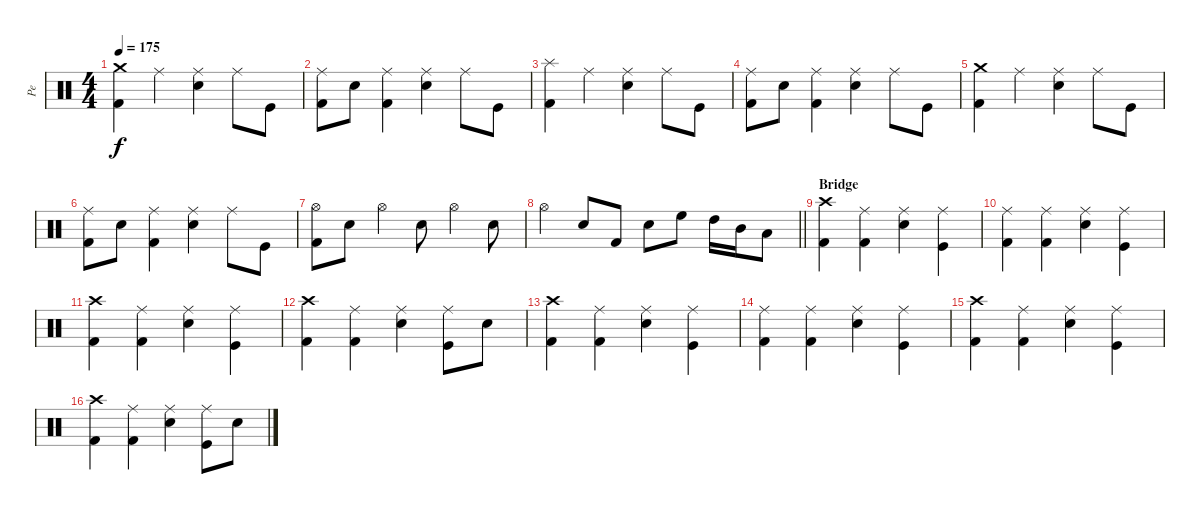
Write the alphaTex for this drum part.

\track ("Pe" "Pe") {instrument percussion}
\staff {score}
\articulation defaults
\ts (4 4)
\tempo 175
\clef neutral
\ks c
("Kick (hit) 2" "Crash medium (hit)").4{dy f} "Ride (middle)".4 ("Electric Snare (hit)" "Ride (middle)").4 "Ride (middle)".8 "Kick (hit)".8 |
("Kick (hit) 2" "Ride (middle)").8 "Electric Snare (hit)".8 ("Kick (hit) 2" "Ride (middle)").4 ("Electric Snare (hit)" "Ride (middle)").4 "Ride (middle)".8 "Kick (hit)".8 |
("Kick (hit) 2" "Splash (hit)").4 "Ride (middle)".4 ("Electric Snare (hit)" "Ride (middle)").4 "Ride (middle)".8 "Kick (hit)".8 |
("Kick (hit) 2" "Ride (middle)").8 "Electric Snare (hit)".8 ("Kick (hit) 2" "Ride (middle)").4 ("Electric Snare (hit)" "Ride (middle)").4 "Ride (middle)".8 "Kick (hit)".8 |
("Kick (hit) 2" "Crash medium (hit)").4 "Ride (middle)".4 ("Electric Snare (hit)" "Ride (middle)").4 "Ride (middle)".8 "Kick (hit)".8 |
("Kick (hit) 2" "Ride (middle)").8 "Electric Snare (hit)".8 ("Kick (hit) 2" "Ride (middle)").4 ("Electric Snare (hit)" "Ride (middle)").4 "Ride (middle)".8 "Kick (hit)".8 |
("Kick (hit) 2" "Hi-Hat (open)").8{volume 15} "Electric Snare (hit)".8 "Hi-Hat (open)".4 "Electric Snare (hit)".8 "Hi-Hat (open)".4 "Electric Snare (hit)".8 |
\barLineRight lightlight "Hi-Hat (open)".4 "Electric Snare (hit)".8 "Kick (hit) 2".8 "Electric Snare (hit)".8 "High Floor Tom (hit)".8 "High Tom (hit)".16 "Mid Tom (hit)".16 "Low Tom (hit)".8
|
\section ("" "Bridge")
("Kick (hit) 2" "Crash high (hit)").4 ("Kick (hit) 2" "Ride (middle)").4 ("Electric Snare (hit)" "Ride (middle)").4 ("Kick (hit)" "Ride (middle)").4 |
("Kick (hit) 2" "Ride (middle)").4 ("Kick (hit) 2" "Ride (middle)").4 ("Electric Snare (hit)" "Ride (middle)").4 ("Kick (hit)" "Ride (middle)").4 |
("Kick (hit) 2" "Crash high (hit)").4 ("Kick (hit) 2" "Ride (middle)").4 ("Electric Snare (hit)" "Ride (middle)").4 ("Kick (hit)" "Ride (middle)").4 |
("Kick (hit) 2" "Crash high (hit)").4 ("Kick (hit) 2" "Ride (middle)").4 ("Electric Snare (hit)" "Ride (middle)").4 ("Kick (hit)" "Ride (middle)").8 "Electric Snare (hit)".8 |
("Kick (hit) 2" "Crash high (hit)").4 ("Kick (hit) 2" "Ride (middle)").4 ("Electric Snare (hit)" "Ride (middle)").4 ("Kick (hit)" "Ride (middle)").4 |
("Kick (hit) 2" "Ride (middle)").4 ("Kick (hit) 2" "Ride (middle)").4 ("Electric Snare (hit)" "Ride (middle)").4 ("Kick (hit)" "Ride (middle)").4 |
("Kick (hit) 2" "Crash high (hit)").4 ("Kick (hit) 2" "Ride (middle)").4 ("Electric Snare (hit)" "Ride (middle)").4 ("Kick (hit)" "Ride (middle)").4 |
("Kick (hit) 2" "Crash high (hit)").4 ("Kick (hit) 2" "Ride (middle)").4 ("Electric Snare (hit)" "Ride (middle)").4 ("Kick (hit)" "Ride (middle)").8 "Electric Snare (hit)".8
